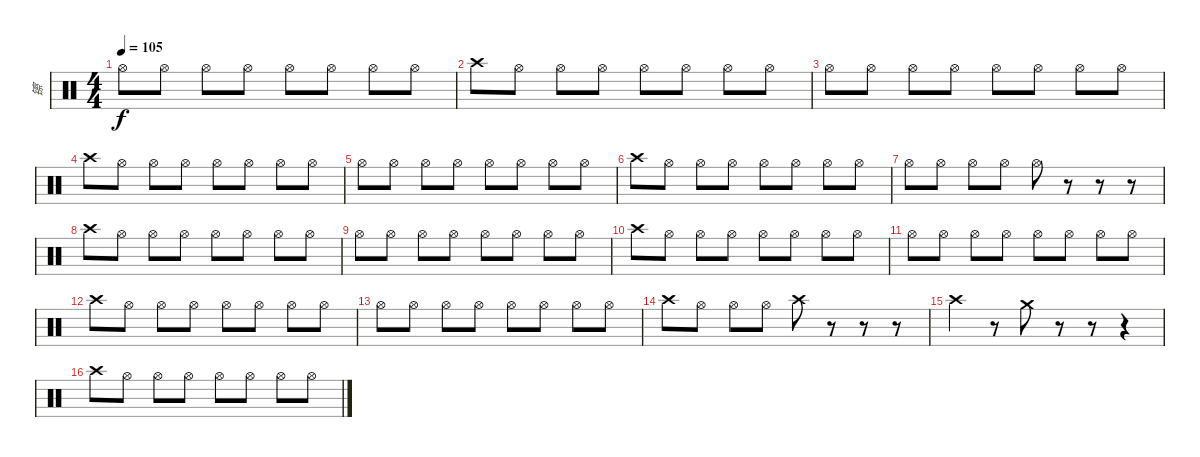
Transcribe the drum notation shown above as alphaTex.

\track ("镲" "镲") {instrument percussion}
\staff {score}
\articulation defaults
\ts (4 4)
\tempo 105
\clef neutral
\ks c "Hi-Hat (open)".8{dy f} "Hi-Hat (open)".8 "Hi-Hat (open)".8 "Hi-Hat (open)".8 "Hi-Hat (open)".8 "Hi-Hat (open)".8 "Hi-Hat (open)".8 "Hi-Hat (open)".8
|
"Crash high (hit)".8 "Hi-Hat (open)".8 "Hi-Hat (open)".8 "Hi-Hat (open)".8 "Hi-Hat (open)".8 "Hi-Hat (open)".8 "Hi-Hat (open)".8 "Hi-Hat (open)".8 |
"Hi-Hat (open)".8 "Hi-Hat (open)".8 "Hi-Hat (open)".8 "Hi-Hat (open)".8 "Hi-Hat (open)".8 "Hi-Hat (open)".8 "Hi-Hat (open)".8 "Hi-Hat (open)".8 |
"Crash high (hit)".8 "Hi-Hat (open)".8 "Hi-Hat (open)".8 "Hi-Hat (open)".8 "Hi-Hat (open)".8 "Hi-Hat (open)".8 "Hi-Hat (open)".8 "Hi-Hat (open)".8 |
"Hi-Hat (open)".8 "Hi-Hat (open)".8 "Hi-Hat (open)".8 "Hi-Hat (open)".8 "Hi-Hat (open)".8 "Hi-Hat (open)".8 "Hi-Hat (open)".8 "Hi-Hat (open)".8 |
"Crash high (hit)".8 "Hi-Hat (open)".8 "Hi-Hat (open)".8 "Hi-Hat (open)".8 "Hi-Hat (open)".8 "Hi-Hat (open)".8 "Hi-Hat (open)".8 "Hi-Hat (open)".8 |
"Hi-Hat (open)".8 "Hi-Hat (open)".8 "Hi-Hat (open)".8 "Hi-Hat (open)".8 "Hi-Hat (open)".8 r.8 r.8 r.8 |
"Crash high (hit)".8 "Hi-Hat (open)".8 "Hi-Hat (open)".8 "Hi-Hat (open)".8 "Hi-Hat (open)".8 "Hi-Hat (open)".8 "Hi-Hat (open)".8 "Hi-Hat (open)".8 |
"Hi-Hat (open)".8 "Hi-Hat (open)".8 "Hi-Hat (open)".8 "Hi-Hat (open)".8 "Hi-Hat (open)".8 "Hi-Hat (open)".8 "Hi-Hat (open)".8 "Hi-Hat (open)".8 |
"Crash high (hit)".8 "Hi-Hat (open)".8 "Hi-Hat (open)".8 "Hi-Hat (open)".8 "Hi-Hat (open)".8 "Hi-Hat (open)".8 "Hi-Hat (open)".8 "Hi-Hat (open)".8 |
"Hi-Hat (open)".8 "Hi-Hat (open)".8 "Hi-Hat (open)".8 "Hi-Hat (open)".8 "Hi-Hat (open)".8 "Hi-Hat (open)".8 "Hi-Hat (open)".8 "Hi-Hat (open)".8 |
"Crash high (hit)".8 "Hi-Hat (open)".8 "Hi-Hat (open)".8 "Hi-Hat (open)".8 "Hi-Hat (open)".8 "Hi-Hat (open)".8 "Hi-Hat (open)".8 "Hi-Hat (open)".8 |
"Hi-Hat (open)".8 "Hi-Hat (open)".8 "Hi-Hat (open)".8 "Hi-Hat (open)".8 "Hi-Hat (open)".8 "Hi-Hat (open)".8 "Hi-Hat (open)".8 "Hi-Hat (open)".8 |
"Crash high (hit)".8 "Hi-Hat (open)".8 "Hi-Hat (open)".8 "Hi-Hat (open)".8 "Crash high (hit)".8 r.8 r.8 r.8 |
"Crash high (hit)".4 r.8 "Crash medium (hit)".8 r.8 r.8 r.4 |
"Crash high (hit)".8 "Hi-Hat (open)".8 "Hi-Hat (open)".8 "Hi-Hat (open)".8 "Hi-Hat (open)".8 "Hi-Hat (open)".8 "Hi-Hat (open)".8 "Hi-Hat (open)".8
